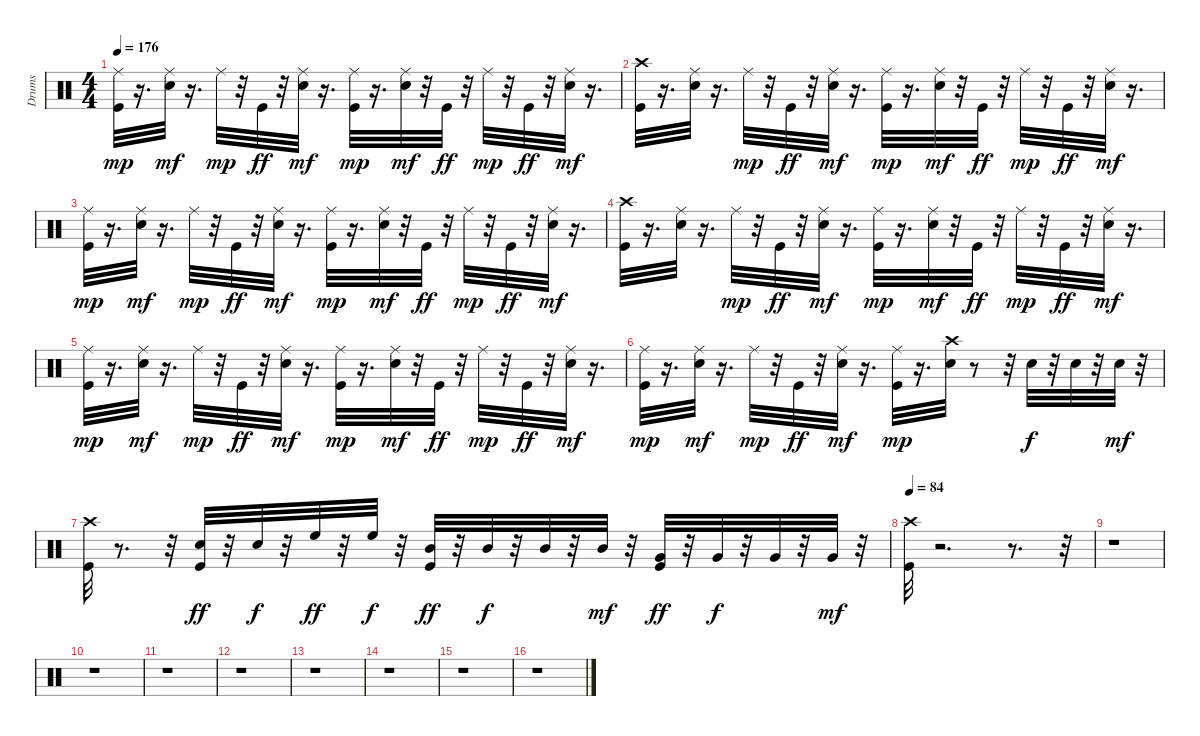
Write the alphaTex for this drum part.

\track ("Drums" "Drums") {instrument percussion}
\staff {score}
\articulation defaults
\ts (4 4)
\tempo 176
\clef neutral
\ks c
("Kick (hit)" "Ride (middle)").32{dy mp} r.16{d} ("Snare (hit) 2" "Ride (middle)").32{dy mf} r.16{d} "Ride (middle)".32{dy mp} r.32 "Kick (hit)".32{dy ff} r.32 ("Snare (hit) 2" "Ride (middle)").32{dy mf} r.16{d} ("Kick (hit)" "Ride (middle)").32{dy mp} r.16{d} ("Snare (hit) 2" "Ride (middle)").32{dy mf} r.32 "Kick (hit)".32{dy ff} r.32 "Ride (middle)".32{dy mp} r.32 "Kick (hit)".32{dy ff} r.32 ("Snare (hit) 2" "Ride (middle)").32{dy mf} r.16{d} |
("Kick (hit)" "Crash high (hit)").32 r.16{d} ("Snare (hit) 2" "Ride (middle)").32 r.16{d} "Ride (middle)".32{dy mp} r.32 "Kick (hit)".32{dy ff} r.32 ("Snare (hit) 2" "Ride (middle)").32{dy mf} r.16{d} ("Kick (hit)" "Ride (middle)").32{dy mp} r.16{d} ("Snare (hit) 2" "Ride (middle)").32{dy mf} r.32 "Kick (hit)".32{dy ff} r.32 "Ride (middle)".32{dy mp} r.32 "Kick (hit)".32{dy ff} r.32 ("Snare (hit) 2" "Ride (middle)").32{dy mf} r.16{d} |
("Kick (hit)" "Ride (middle)").32{dy mp} r.16{d} ("Snare (hit) 2" "Ride (middle)").32{dy mf} r.16{d} "Ride (middle)".32{dy mp} r.32 "Kick (hit)".32{dy ff} r.32 ("Snare (hit) 2" "Ride (middle)").32{dy mf} r.16{d} ("Kick (hit)" "Ride (middle)").32{dy mp} r.16{d} ("Snare (hit) 2" "Ride (middle)").32{dy mf} r.32 "Kick (hit)".32{dy ff} r.32 "Ride (middle)".32{dy mp} r.32 "Kick (hit)".32{dy ff} r.32 ("Snare (hit) 2" "Ride (middle)").32{dy mf} r.16{d} |
("Kick (hit)" "Crash high (hit)").32 r.16{d} ("Snare (hit) 2" "Ride (middle)").32 r.16{d} "Ride (middle)".32{dy mp} r.32 "Kick (hit)".32{dy ff} r.32 ("Snare (hit) 2" "Ride (middle)").32{dy mf} r.16{d} ("Kick (hit)" "Ride (middle)").32{dy mp} r.16{d} ("Snare (hit) 2" "Ride (middle)").32{dy mf} r.32 "Kick (hit)".32{dy ff} r.32 "Ride (middle)".32{dy mp} r.32 "Kick (hit)".32{dy ff} r.32 ("Snare (hit) 2" "Ride (middle)").32{dy mf} r.16{d} |
("Kick (hit)" "Ride (middle)").32{dy mp} r.16{d} ("Snare (hit) 2" "Ride (middle)").32{dy mf} r.16{d} "Ride (middle)".32{dy mp} r.32 "Kick (hit)".32{dy ff} r.32 ("Snare (hit) 2" "Ride (middle)").32{dy mf} r.16{d} ("Kick (hit)" "Ride (middle)").32{dy mp} r.16{d} ("Snare (hit) 2" "Ride (middle)").32{dy mf} r.32 "Kick (hit)".32{dy ff} r.32 "Ride (middle)".32{dy mp} r.32 "Kick (hit)".32{dy ff} r.32 ("Snare (hit) 2" "Ride (middle)").32{dy mf} r.16{d} |
("Kick (hit)" "Ride (middle)").32{dy mp} r.16{d} ("Snare (hit) 2" "Ride (middle)").32{dy mf} r.16{d} "Ride (middle)".32{dy mp} r.32 "Kick (hit)".32{dy ff} r.32 ("Snare (hit) 2" "Ride (middle)").32{dy mf} r.16{d} ("Kick (hit)" "Ride (middle)").32{dy mp} r.16{d} ("Snare (hit) 2" "Crash high (hit)").32 r.8 r.32 "Snare (hit) 2".32{dy f} r.32 "Snare (hit) 2".32 r.32 "Snare (hit) 2".32{dy mf} r.32 |
("Kick (hit)" "Crash high (hit)").32 r.8{d} r.32 ("Kick (hit)" "Snare (hit) 2").32{dy ff} r.32 "Snare (hit) 2".32{dy f} r.32 "High Floor Tom (hit)".32{dy ff} r.32 "High Floor Tom (hit)".32{dy f} r.32 ("Kick (hit)" "Mid Tom (hit)").32{dy ff} r.32 "Mid Tom (hit)".32{dy f} r.32 "Mid Tom (hit)".32 r.32 "Mid Tom (hit)".32{dy mf} r.32 ("Kick (hit)" "Very Low Tom (hit)").32{dy ff} r.32 "Very Low Tom (hit)".32{dy f} r.32 "Very Low Tom (hit)".32 r.32 "Very Low Tom (hit)".32{dy mf} r.32 |
\tempo 84
("Kick (hit)" "Crash high (hit)").32 r.2{d} r.8{d} r.32 |
r.1 |
r.1 |
r.1 |
r.1 |
r.1 |
r.1 |
r.1 |
r.1
